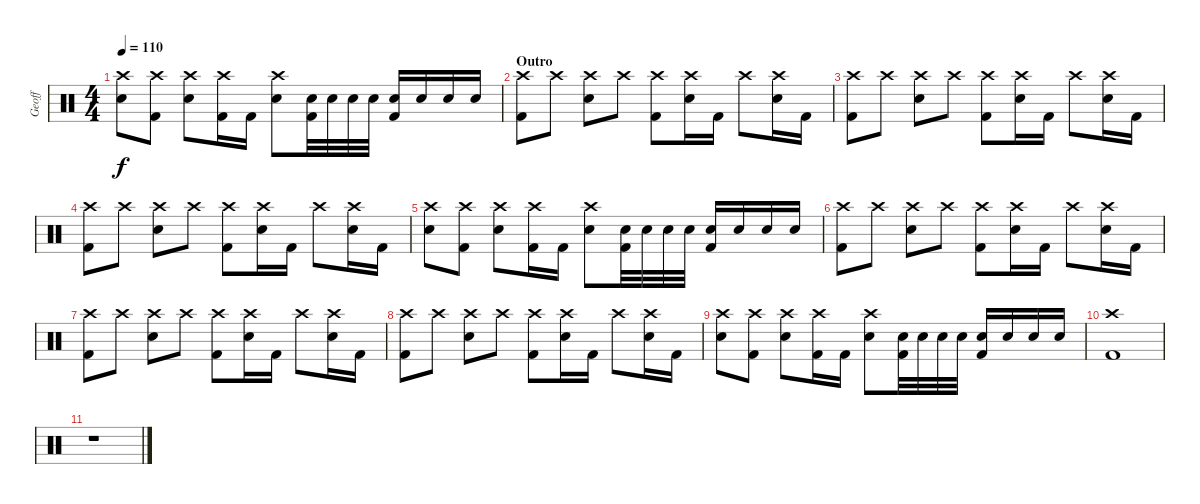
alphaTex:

\track ("Geoff" "Geoff") {instrument percussion}
\staff {score}
\articulation defaults
\ts (4 4)
\tempo 110
\clef neutral
\ks c
("Crash high (hit)" "Electric Snare (hit)").8{dy f} ("Crash high (hit)" "Kick (hit) 2").8 ("Crash high (hit)" "Electric Snare (hit)").8 ("Crash high (hit)" "Kick (hit) 2").16 "Kick (hit) 2".16 ("Crash high (hit)" "Electric Snare (hit)").8 ("Electric Snare (hit)" "Kick (hit) 2").32 "Electric Snare (hit)".32 "Electric Snare (hit)".32 "Electric Snare (hit)".32 ("Electric Snare (hit)" "Kick (hit) 2").16 "Electric Snare (hit)".16 "Electric Snare (hit)".16 "Electric Snare (hit)".16 |
\section ("" "Outro")
("Crash high (hit)" "Kick (hit) 2").8 "Crash high (hit)".8 ("Crash high (hit)" "Electric Snare (hit)").8 "Crash high (hit)".8 ("Crash high (hit)" "Kick (hit) 2").8 ("Crash high (hit)" "Electric Snare (hit)").16 "Kick (hit) 2".16 "Crash high (hit)".8 ("Crash high (hit)" "Electric Snare (hit)").16 "Kick (hit) 2".16 |
("Crash high (hit)" "Kick (hit) 2").8 "Crash high (hit)".8 ("Crash high (hit)" "Electric Snare (hit)").8 "Crash high (hit)".8 ("Crash high (hit)" "Kick (hit) 2").8 ("Crash high (hit)" "Electric Snare (hit)").16 "Kick (hit) 2".16 "Crash high (hit)".8 ("Crash high (hit)" "Electric Snare (hit)").16 "Kick (hit) 2".16 |
("Crash high (hit)" "Kick (hit) 2").8 "Crash high (hit)".8 ("Crash high (hit)" "Electric Snare (hit)").8 "Crash high (hit)".8 ("Crash high (hit)" "Kick (hit) 2").8 ("Crash high (hit)" "Electric Snare (hit)").16 "Kick (hit) 2".16 "Crash high (hit)".8 ("Crash high (hit)" "Electric Snare (hit)").16 "Kick (hit) 2".16 |
("Crash high (hit)" "Electric Snare (hit)").8 ("Crash high (hit)" "Kick (hit) 2").8 ("Crash high (hit)" "Electric Snare (hit)").8 ("Crash high (hit)" "Kick (hit) 2").16 "Kick (hit) 2".16 ("Crash high (hit)" "Electric Snare (hit)").8 ("Electric Snare (hit)" "Kick (hit) 2").32 "Electric Snare (hit)".32 "Electric Snare (hit)".32 "Electric Snare (hit)".32 ("Electric Snare (hit)" "Kick (hit) 2").16 "Electric Snare (hit)".16 "Electric Snare (hit)".16 "Electric Snare (hit)".16 |
("Crash high (hit)" "Kick (hit) 2").8 "Crash high (hit)".8 ("Crash high (hit)" "Electric Snare (hit)").8 "Crash high (hit)".8 ("Crash high (hit)" "Kick (hit) 2").8 ("Crash high (hit)" "Electric Snare (hit)").16 "Kick (hit) 2".16 "Crash high (hit)".8 ("Crash high (hit)" "Electric Snare (hit)").16 "Kick (hit) 2".16 |
("Crash high (hit)" "Kick (hit) 2").8 "Crash high (hit)".8 ("Crash high (hit)" "Electric Snare (hit)").8 "Crash high (hit)".8 ("Crash high (hit)" "Kick (hit) 2").8 ("Crash high (hit)" "Electric Snare (hit)").16 "Kick (hit) 2".16 "Crash high (hit)".8 ("Crash high (hit)" "Electric Snare (hit)").16 "Kick (hit) 2".16 |
("Crash high (hit)" "Kick (hit) 2").8 "Crash high (hit)".8 ("Crash high (hit)" "Electric Snare (hit)").8 "Crash high (hit)".8 ("Crash high (hit)" "Kick (hit) 2").8 ("Crash high (hit)" "Electric Snare (hit)").16 "Kick (hit) 2".16 "Crash high (hit)".8 ("Crash high (hit)" "Electric Snare (hit)").16 "Kick (hit) 2".16 |
("Crash high (hit)" "Electric Snare (hit)").8 ("Crash high (hit)" "Kick (hit) 2").8 ("Crash high (hit)" "Electric Snare (hit)").8 ("Crash high (hit)" "Kick (hit) 2").16 "Kick (hit) 2".16 ("Crash high (hit)" "Electric Snare (hit)").8 ("Electric Snare (hit)" "Kick (hit) 2").32 "Electric Snare (hit)".32 "Electric Snare (hit)".32 "Electric Snare (hit)".32 ("Electric Snare (hit)" "Kick (hit) 2").16 "Electric Snare (hit)".16 "Electric Snare (hit)".16 "Electric Snare (hit)".16 |
("Crash high (hit)" "Kick (hit) 2").1 |
r.1
